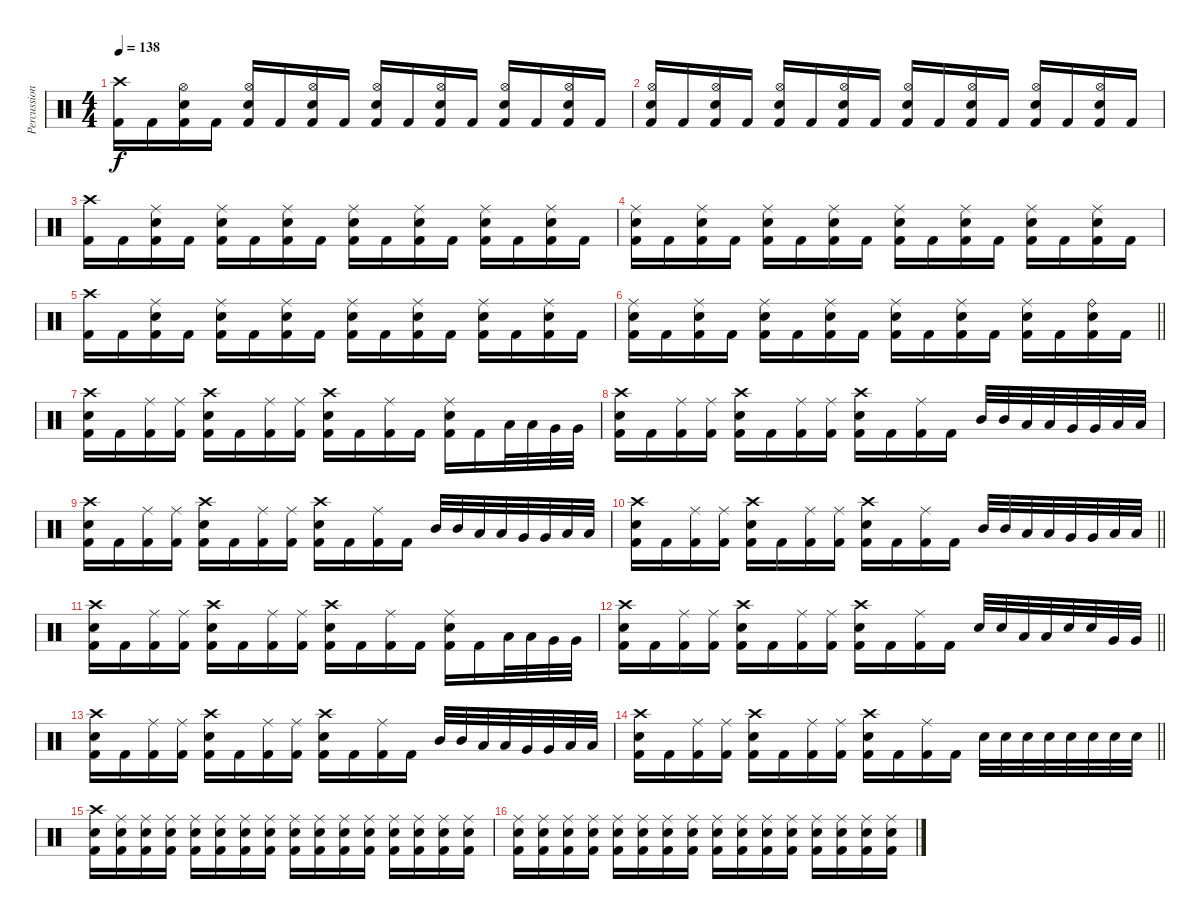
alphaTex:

\track ("Percussion" "Percussion") {instrument percussion}
\staff {score}
\articulation defaults
\ts (4 4)
\section ("" "")
\tempo 138
\clef neutral
\ks c
("Kick (hit) 2" "Crash high (hit)").16{dy f} "Kick (hit) 2".16 ("Kick (hit) 2" "Hi-Hat (open)" "Electric Snare (hit)").16 "Kick (hit) 2".16 ("Kick (hit) 2" "Hi-Hat (open)" "Electric Snare (hit)").16 "Kick (hit) 2".16 ("Kick (hit) 2" "Hi-Hat (open)" "Electric Snare (hit)").16 "Kick (hit) 2".16 ("Kick (hit) 2" "Hi-Hat (open)" "Electric Snare (hit)").16 "Kick (hit) 2".16 ("Kick (hit) 2" "Hi-Hat (open)" "Electric Snare (hit)").16 "Kick (hit) 2".16 ("Kick (hit) 2" "Hi-Hat (open)" "Electric Snare (hit)").16 "Kick (hit) 2".16 ("Kick (hit) 2" "Hi-Hat (open)" "Electric Snare (hit)").16 "Kick (hit) 2".16 |
("Kick (hit) 2" "Hi-Hat (open)" "Electric Snare (hit)").16 "Kick (hit) 2".16 ("Kick (hit) 2" "Hi-Hat (open)" "Electric Snare (hit)").16 "Kick (hit) 2".16 ("Kick (hit) 2" "Hi-Hat (open)" "Electric Snare (hit)").16 "Kick (hit) 2".16 ("Kick (hit) 2" "Hi-Hat (open)" "Electric Snare (hit)").16 "Kick (hit) 2".16 ("Kick (hit) 2" "Hi-Hat (open)" "Electric Snare (hit)").16 "Kick (hit) 2".16 ("Kick (hit) 2" "Hi-Hat (open)" "Electric Snare (hit)").16 "Kick (hit) 2".16 ("Kick (hit) 2" "Hi-Hat (open)" "Electric Snare (hit)").16 "Kick (hit) 2".16 ("Kick (hit) 2" "Hi-Hat (open)" "Electric Snare (hit)").16 "Kick (hit) 2".16 |
("Kick (hit) 2" "Crash high (hit)").16 "Kick (hit) 2".16 ("Kick (hit) 2" "Ride (middle)" "Electric Snare (hit)").16 "Kick (hit) 2".16 ("Kick (hit) 2" "Ride (middle)" "Electric Snare (hit)").16 "Kick (hit) 2".16 ("Kick (hit) 2" "Ride (middle)" "Electric Snare (hit)").16 "Kick (hit) 2".16 ("Kick (hit) 2" "Ride (middle)" "Electric Snare (hit)").16 "Kick (hit) 2".16 ("Kick (hit) 2" "Ride (middle)" "Electric Snare (hit)").16 "Kick (hit) 2".16 ("Kick (hit) 2" "Ride (middle)" "Electric Snare (hit)").16 "Kick (hit) 2".16 ("Kick (hit) 2" "Ride (middle)" "Electric Snare (hit)").16 "Kick (hit) 2".16 |
("Kick (hit) 2" "Ride (middle)" "Electric Snare (hit)").16 "Kick (hit) 2".16 ("Kick (hit) 2" "Ride (middle)" "Electric Snare (hit)").16 "Kick (hit) 2".16 ("Kick (hit) 2" "Ride (middle)" "Electric Snare (hit)").16 "Kick (hit) 2".16 ("Kick (hit) 2" "Ride (middle)" "Electric Snare (hit)").16 "Kick (hit) 2".16 ("Kick (hit) 2" "Ride (middle)" "Electric Snare (hit)").16 "Kick (hit) 2".16 ("Kick (hit) 2" "Ride (middle)" "Electric Snare (hit)").16 "Kick (hit) 2".16 ("Kick (hit) 2" "Ride (middle)" "Electric Snare (hit)").16 "Kick (hit) 2".16 ("Kick (hit) 2" "Ride (middle)" "Electric Snare (hit)").16 "Kick (hit) 2".16 |
("Kick (hit) 2" "Crash high (hit)").16 "Kick (hit) 2".16 ("Kick (hit) 2" "Ride (middle)" "Electric Snare (hit)").16 "Kick (hit) 2".16 ("Kick (hit) 2" "Ride (middle)" "Electric Snare (hit)").16 "Kick (hit) 2".16 ("Kick (hit) 2" "Ride (middle)" "Electric Snare (hit)").16 "Kick (hit) 2".16 ("Kick (hit) 2" "Ride (middle)" "Electric Snare (hit)").16 "Kick (hit) 2".16 ("Kick (hit) 2" "Ride (middle)" "Electric Snare (hit)").16 "Kick (hit) 2".16 ("Kick (hit) 2" "Ride (middle)" "Electric Snare (hit)").16 "Kick (hit) 2".16 ("Kick (hit) 2" "Ride (middle)" "Electric Snare (hit)").16 "Kick (hit) 2".16 |
\barLineRight lightlight
("Kick (hit) 2" "Ride (middle)" "Electric Snare (hit)").16 "Kick (hit) 2".16 ("Kick (hit) 2" "Ride (middle)" "Electric Snare (hit)").16 "Kick (hit) 2".16 ("Kick (hit) 2" "Ride (middle)" "Electric Snare (hit)").16 "Kick (hit) 2".16 ("Kick (hit) 2" "Ride (middle)" "Electric Snare (hit)").16 "Kick (hit) 2".16 ("Kick (hit) 2" "Ride (middle)" "Electric Snare (hit)").16 "Kick (hit) 2".16 ("Kick (hit) 2" "Ride (middle)" "Electric Snare (hit)").16 "Kick (hit) 2".16 ("Kick (hit) 2" "Ride (middle)" "Electric Snare (hit)").16 "Kick (hit) 2".16 ("Kick (hit) 2" "Ride (bell)" "Electric Snare (hit)").16 "Kick (hit) 2".16 |
\section ("" "")
("Kick (hit) 2" "Crash high (hit)" "Electric Snare (hit)").16 "Kick (hit) 2".16 ("Kick (hit) 2" "Ride (middle)").16 ("Kick (hit) 2" "Ride (middle)").16 ("Kick (hit) 2" "Crash high (hit)" "Electric Snare (hit)").16 "Kick (hit) 2".16 ("Kick (hit) 2" "Ride (middle)").16 ("Kick (hit) 2" "Ride (middle)").16 ("Kick (hit) 2" "Crash high (hit)" "Electric Snare (hit)").16 "Kick (hit) 2".16 ("Kick (hit) 2" "Ride (middle)").16 "Kick (hit) 2".16 ("Kick (hit) 2" "Ride (middle)" "Electric Snare (hit)").16 "Kick (hit) 2".16 "Low Tom (hit)".32 "Low Tom (hit)".32 "Very Low Tom (hit)".32 "Very Low Tom (hit)".32 |
("Kick (hit) 2" "Crash high (hit)" "Electric Snare (hit)").16 "Kick (hit) 2".16 ("Kick (hit) 2" "Ride (middle)").16 ("Kick (hit) 2" "Ride (middle)").16 ("Kick (hit) 2" "Crash high (hit)" "Electric Snare (hit)").16 "Kick (hit) 2".16 ("Kick (hit) 2" "Ride (middle)").16 ("Kick (hit) 2" "Ride (middle)").16 ("Kick (hit) 2" "Crash high (hit)" "Electric Snare (hit)").16 "Kick (hit) 2".16 ("Kick (hit) 2" "Ride (middle)").16 "Kick (hit) 2".16 "Mid Tom (hit)".32 "Mid Tom (hit)".32 "Low Tom (hit)".32 "Low Tom (hit)".32 "Very Low Tom (hit)".32 "Very Low Tom (hit)".32 "Low Floor Tom (hit)".32 "Low Floor Tom (hit)".32 |
("Kick (hit) 2" "Crash high (hit)" "Electric Snare (hit)").16 "Kick (hit) 2".16 ("Kick (hit) 2" "Ride (middle)").16 ("Kick (hit) 2" "Ride (middle)").16 ("Kick (hit) 2" "Crash high (hit)" "Electric Snare (hit)").16 "Kick (hit) 2".16 ("Kick (hit) 2" "Ride (middle)").16 ("Kick (hit) 2" "Ride (middle)").16 ("Kick (hit) 2" "Crash high (hit)" "Electric Snare (hit)").16 "Kick (hit) 2".16 ("Kick (hit) 2" "Ride (middle)").16 "Kick (hit) 2".16 "Mid Tom (hit)".32 "Mid Tom (hit)".32 "Low Tom (hit)".32 "Low Tom (hit)".32 "Very Low Tom (hit)".32 "Very Low Tom (hit)".32 "Low Floor Tom (hit)".32 "Low Floor Tom (hit)".32 |
\barLineRight lightlight
("Kick (hit) 2" "Crash high (hit)" "Electric Snare (hit)").16 "Kick (hit) 2".16 ("Kick (hit) 2" "Ride (middle)").16 ("Kick (hit) 2" "Ride (middle)").16 ("Kick (hit) 2" "Crash high (hit)" "Electric Snare (hit)").16 "Kick (hit) 2".16 ("Kick (hit) 2" "Ride (middle)").16 ("Kick (hit) 2" "Ride (middle)").16 ("Kick (hit) 2" "Crash high (hit)" "Electric Snare (hit)").16 "Kick (hit) 2".16 ("Kick (hit) 2" "Ride (middle)").16 "Kick (hit) 2".16 "Mid Tom (hit)".32 "Mid Tom (hit)".32 "Low Tom (hit)".32 "Low Tom (hit)".32 "Very Low Tom (hit)".32 "Very Low Tom (hit)".32 "Low Floor Tom (hit)".32 "Low Floor Tom (hit)".32 |
\section ("" "")
("Kick (hit) 2" "Crash high (hit)" "Electric Snare (hit)").16 "Kick (hit) 2".16 ("Kick (hit) 2" "Ride (middle)").16 ("Kick (hit) 2" "Ride (middle)").16 ("Kick (hit) 2" "Crash high (hit)" "Electric Snare (hit)").16 "Kick (hit) 2".16 ("Kick (hit) 2" "Ride (middle)").16 ("Kick (hit) 2" "Ride (middle)").16 ("Kick (hit) 2" "Crash high (hit)" "Electric Snare (hit)").16 "Kick (hit) 2".16 ("Kick (hit) 2" "Ride (middle)").16 "Kick (hit) 2".16 ("Kick (hit) 2" "Ride (middle)" "Electric Snare (hit)").16 "Kick (hit) 2".16 "Low Tom (hit)".32 "Low Tom (hit)".32 "Very Low Tom (hit)".32 "Very Low Tom (hit)".32 |
\barLineRight lightlight
("Kick (hit) 2" "Crash high (hit)" "Electric Snare (hit)").16 "Kick (hit) 2".16 ("Kick (hit) 2" "Ride (middle)").16 ("Kick (hit) 2" "Ride (middle)").16 ("Kick (hit) 2" "Crash high (hit)" "Electric Snare (hit)").16 "Kick (hit) 2".16 ("Kick (hit) 2" "Ride (middle)").16 ("Kick (hit) 2" "Ride (middle)").16 ("Kick (hit) 2" "Crash high (hit)" "Electric Snare (hit)").16 "Kick (hit) 2".16 ("Kick (hit) 2" "Ride (middle)").16 "Kick (hit) 2".16 "Electric Snare (hit)".32 "Electric Snare (hit)".32 "Low Tom (hit)".32 "Low Tom (hit)".32 "Electric Snare (hit)".32 "Electric Snare (hit)".32 "Very Low Tom (hit)".32 "Very Low Tom (hit)".32 |
("Kick (hit) 2" "Crash high (hit)" "Electric Snare (hit)").16 "Kick (hit) 2".16 ("Kick (hit) 2" "Ride (middle)").16 ("Kick (hit) 2" "Ride (middle)").16 ("Kick (hit) 2" "Crash high (hit)" "Electric Snare (hit)").16 "Kick (hit) 2".16 ("Kick (hit) 2" "Ride (middle)").16 ("Kick (hit) 2" "Ride (middle)").16 ("Kick (hit) 2" "Crash high (hit)" "Electric Snare (hit)").16 "Kick (hit) 2".16 ("Kick (hit) 2" "Ride (middle)").16 "Kick (hit) 2".16 "Mid Tom (hit)".32 "Mid Tom (hit)".32 "Low Tom (hit)".32 "Low Tom (hit)".32 "Very Low Tom (hit)".32 "Very Low Tom (hit)".32 "Low Floor Tom (hit)".32 "Low Floor Tom (hit)".32 |
\barLineRight lightlight
("Kick (hit) 2" "Crash high (hit)" "Electric Snare (hit)").16 "Kick (hit) 2".16 ("Kick (hit) 2" "Ride (middle)").16 ("Kick (hit) 2" "Ride (middle)").16 ("Kick (hit) 2" "Crash high (hit)" "Electric Snare (hit)").16 "Kick (hit) 2".16 ("Kick (hit) 2" "Ride (middle)").16 ("Kick (hit) 2" "Ride (middle)").16 ("Kick (hit) 2" "Crash high (hit)" "Electric Snare (hit)").16 "Kick (hit) 2".16 ("Kick (hit) 2" "Ride (middle)").16 "Kick (hit) 2".16 "Electric Snare (hit)".32 "Electric Snare (hit)".32 "Electric Snare (hit)".32 "Electric Snare (hit)".32 "Electric Snare (hit)".32 "Electric Snare (hit)".32 "Electric Snare (hit)".32 "Electric Snare (hit)".32 |
\section ("" "")
("Kick (hit) 2" "Electric Snare (hit)" "Crash high (hit)").16 ("Kick (hit) 2" "Electric Snare (hit)" "Ride (middle)").16 ("Kick (hit) 2" "Electric Snare (hit)" "Ride (middle)").16 ("Kick (hit) 2" "Electric Snare (hit)" "Ride (middle)").16 ("Kick (hit) 2" "Electric Snare (hit)" "Ride (middle)").16 ("Kick (hit) 2" "Electric Snare (hit)" "Ride (middle)").16 ("Kick (hit) 2" "Electric Snare (hit)" "Ride (middle)").16 ("Kick (hit) 2" "Electric Snare (hit)" "Ride (middle)").16 ("Kick (hit) 2" "Electric Snare (hit)" "Ride (middle)").16 ("Kick (hit) 2" "Electric Snare (hit)" "Ride (middle)").16 ("Kick (hit) 2" "Electric Snare (hit)" "Ride (middle)").16 ("Kick (hit) 2" "Electric Snare (hit)" "Ride (middle)").16 ("Kick (hit) 2" "Electric Snare (hit)" "Ride (middle)").16 ("Kick (hit) 2" "Electric Snare (hit)" "Ride (middle)").16 ("Kick (hit) 2" "Electric Snare (hit)" "Ride (middle)").16 ("Kick (hit) 2" "Electric Snare (hit)" "Ride (middle)").16 |
("Kick (hit) 2" "Electric Snare (hit)" "Ride (middle)").16 ("Kick (hit) 2" "Electric Snare (hit)" "Ride (middle)").16 ("Kick (hit) 2" "Electric Snare (hit)" "Ride (middle)").16 ("Kick (hit) 2" "Electric Snare (hit)" "Ride (middle)").16 ("Kick (hit) 2" "Electric Snare (hit)" "Ride (middle)").16 ("Kick (hit) 2" "Electric Snare (hit)" "Ride (middle)").16 ("Kick (hit) 2" "Electric Snare (hit)" "Ride (middle)").16 ("Kick (hit) 2" "Electric Snare (hit)" "Ride (middle)").16 ("Kick (hit) 2" "Electric Snare (hit)" "Ride (middle)").16 ("Kick (hit) 2" "Electric Snare (hit)" "Ride (middle)").16 ("Kick (hit) 2" "Electric Snare (hit)" "Ride (middle)").16 ("Kick (hit) 2" "Electric Snare (hit)" "Ride (middle)").16 ("Kick (hit) 2" "Electric Snare (hit)" "Ride (middle)").16 ("Kick (hit) 2" "Electric Snare (hit)" "Ride (middle)").16 ("Kick (hit) 2" "Electric Snare (hit)" "Ride (middle)").16 ("Kick (hit) 2" "Electric Snare (hit)" "Ride (middle)").16
